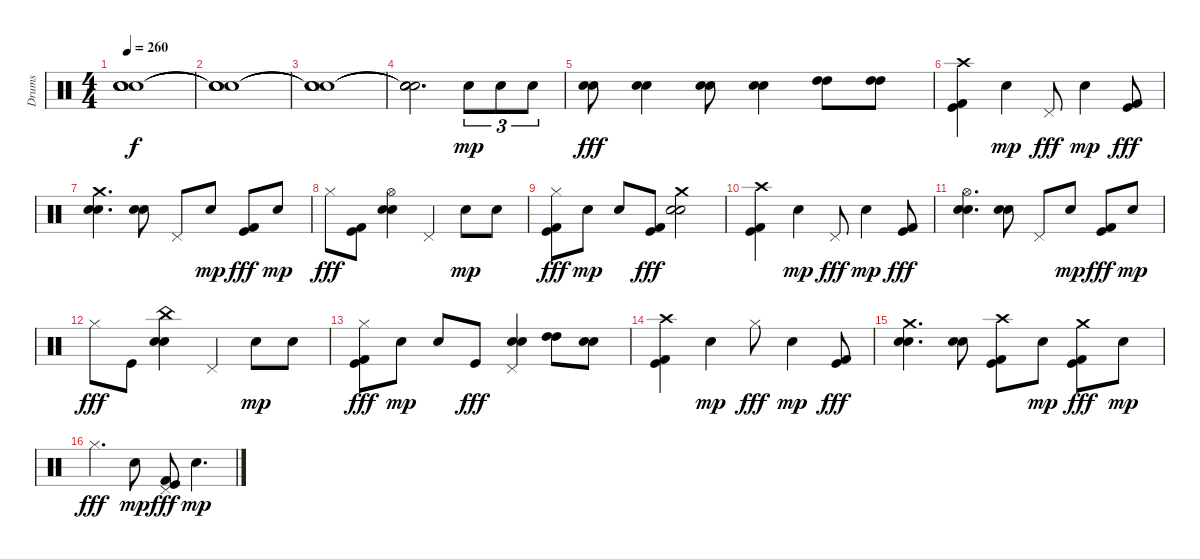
\track ("Drums" "Drums") {instrument percussion}
\staff {score}
\articulation defaults
\ts (4 4)
\tempo 260
\clef neutral
\ks c
("Snare (hit)"{t} "Snare (hit)"{t} "Snare (hit)"{t} "Snare (hit)"{t}).1{dy f} |
("Snare (hit)"{t} "Snare (hit)"{t} "Snare (hit)"{t} "Snare (hit)"{t}).1 |
("Snare (hit)"{t} "Snare (hit)"{t} "Snare (hit)"{t} "Snare (hit)"{t}).1 |
("Snare (hit)"{t} "Snare (hit)"{t} "Snare (hit)"{t} "Snare (hit)"{t}).2{d} "Electric Snare (hit)".8{tu (3 2) dy mp} "Electric Snare (hit)".8{tu (3 2)} "Electric Snare (hit)".8{tu (3 2)} |
("Electric Snare (hit)" "Electric Snare (hit)").8{dy fff} ("Electric Snare (hit)" "Electric Snare (hit)").4 ("Electric Snare (hit)" "Electric Snare (hit)").8 ("Electric Snare (hit)" "Electric Snare (hit)").4 ("High Tom (hit)" "High Tom (hit)").8 ("High Tom (hit)" "High Tom (hit)").8 |
("Kick (hit)" "Kick (hit) 2" "Crash high (hit)").4 "Electric Snare (hit)".4{dy mp} "Pedal Hi-Hat (hit)".8{dy fff} "Electric Snare (hit)".4{dy mp} ("Kick (hit)" "Kick (hit) 2").8{dy fff} |
("Electric Snare (hit)" "Electric Snare (hit)" "Crash medium (hit)").4{d} ("Electric Snare (hit)" "Electric Snare (hit)").8 "Pedal Hi-Hat (hit)".8 "Electric Snare (hit)".8{dy mp} ("Kick (hit)" "Kick (hit) 2").8{dy fff} "Electric Snare (hit)".8{dy mp} |
"Hi-Hat (closed)".8{dy fff} ("Kick (hit)" "Kick (hit) 2").8 ("Electric Snare (hit)" "Electric Snare (hit)" "Hi-Hat (open)").4 "Pedal Hi-Hat (hit)".4 "Electric Snare (hit)".8{dy mp} "Electric Snare (hit)".8 |
("Kick (hit)" "Kick (hit) 2" "Hi-Hat (closed)").8{dy fff} "Electric Snare (hit)".8{dy mp} "Electric Snare (hit)".8 ("Kick (hit)" "Kick (hit) 2").8{dy fff} ("Electric Snare (hit)" "Electric Snare (hit)" "Crash medium (hit)").2 |
("Kick (hit)" "Kick (hit) 2" "Crash high (hit)").4 "Electric Snare (hit)".4{dy mp} "Pedal Hi-Hat (hit)".8{dy fff} "Electric Snare (hit)".4{dy mp} ("Kick (hit)" "Kick (hit) 2").8{dy fff} |
("Electric Snare (hit)" "Electric Snare (hit)" "Hi-Hat (open)").4{d} ("Electric Snare (hit)" "Electric Snare (hit)").8 "Pedal Hi-Hat (hit)".8 "Electric Snare (hit)".8{dy mp} ("Kick (hit)" "Kick (hit) 2").8{dy fff} "Electric Snare (hit)".8{dy mp} |
"Hi-Hat (closed)".8{dy fff} "Kick (hit)".8 ("Electric Snare (hit)" "Electric Snare (hit)" "China (hit)").4 "Pedal Hi-Hat (hit)".4 "Electric Snare (hit)".8{dy mp} "Electric Snare (hit)".8 |
("Kick (hit)" "Kick (hit) 2" "Hi-Hat (closed)").8{dy fff} "Electric Snare (hit)".8{dy mp} "Electric Snare (hit)".8 "Kick (hit)".8{dy fff} ("Electric Snare (hit)" "Electric Snare (hit)" "Pedal Hi-Hat (hit)").4 ("High Tom (hit)" "High Tom (hit)").8 ("Electric Snare (hit)" "Electric Snare (hit)").8 |
("Kick (hit)" "Kick (hit) 2" "Crash high (hit)").4 "Electric Snare (hit)".4{dy mp} "Hi-Hat (closed)".8{dy fff} "Electric Snare (hit)".4{dy mp} ("Kick (hit)" "Kick (hit) 2").8{dy fff} |
("Electric Snare (hit)" "Electric Snare (hit)" "Crash medium (hit)").4{d} ("Electric Snare (hit)" "Electric Snare (hit)").8 ("Kick (hit)" "Kick (hit) 2" "Crash high (hit)").8 "Electric Snare (hit)".8{dy mp} ("Kick (hit)" "Kick (hit) 2" "Crash medium (hit)").8{dy fff} "Electric Snare (hit)".8{dy mp} |
"Hi-Hat (closed)".4{d dy fff} "Electric Snare (hit)".8{dy mp} ("Kick (hit)" "Kick (hit) 2" "Pedal Hi-Hat (hit)").8{dy fff} "Electric Snare (hit)".4{d dy mp}
